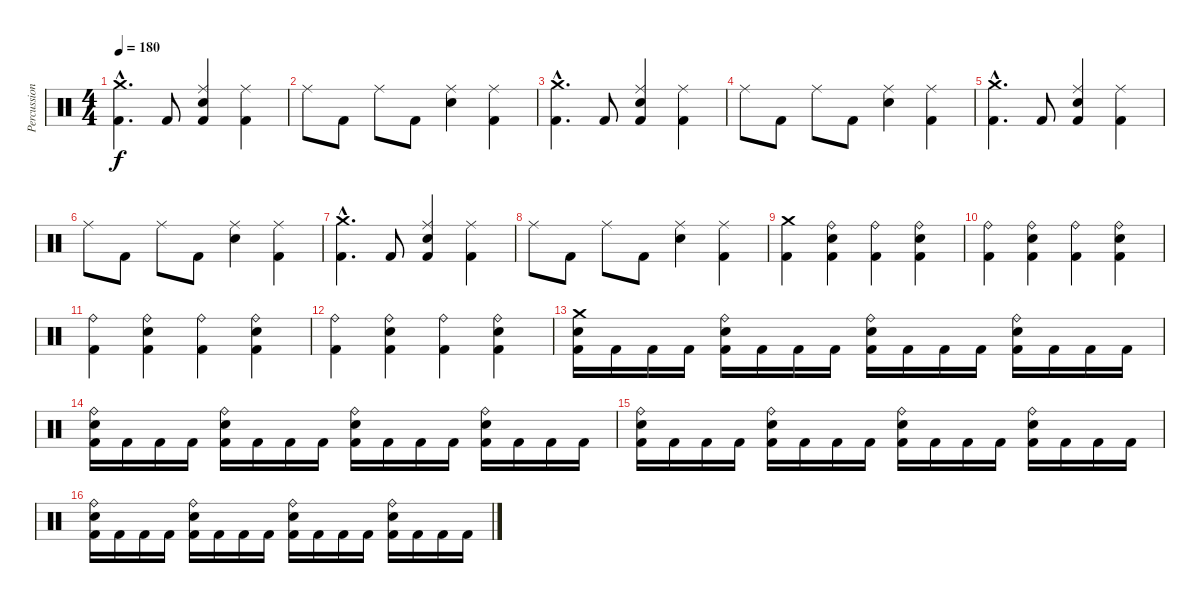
\track ("Percussion" "Percussion") {instrument percussion}
\staff {score}
\articulation defaults
\ts (4 4)
\tempo 180
\clef neutral
\ks c
("Crash medium (hit)"{hac} "Kick (hit) 2"{hac}).4{d dy f} "Kick (hit) 2".8 ("Ride (middle)" "Electric Snare (hit)" "Kick (hit) 2").4 ("Ride (middle)" "Kick (hit) 2").4 |
"Ride (middle)".8 "Kick (hit) 2".8 "Ride (middle)".8 "Kick (hit) 2".8 ("Ride (middle)" "Electric Snare (hit)").4 ("Ride (middle)" "Kick (hit) 2").4 |
("Crash medium (hit)"{hac} "Kick (hit) 2"{hac}).4{d} "Kick (hit) 2".8 ("Ride (middle)" "Electric Snare (hit)" "Kick (hit) 2").4 ("Ride (middle)" "Kick (hit) 2").4 |
"Ride (middle)".8 "Kick (hit) 2".8 "Ride (middle)".8 "Kick (hit) 2".8 ("Ride (middle)" "Electric Snare (hit)").4 ("Ride (middle)" "Kick (hit) 2").4 |
("Crash medium (hit)"{hac} "Kick (hit) 2"{hac}).4{d} "Kick (hit) 2".8 ("Ride (middle)" "Electric Snare (hit)" "Kick (hit) 2").4 ("Ride (middle)" "Kick (hit) 2").4 |
"Ride (middle)".8 "Kick (hit) 2".8 "Ride (middle)".8 "Kick (hit) 2".8 ("Ride (middle)" "Electric Snare (hit)").4 ("Ride (middle)" "Kick (hit) 2").4 |
("Crash medium (hit)"{hac} "Kick (hit) 2"{hac}).4{d} "Kick (hit) 2".8 ("Ride (middle)" "Electric Snare (hit)" "Kick (hit) 2").4 ("Ride (middle)" "Kick (hit) 2").4 |
"Ride (middle)".8 "Kick (hit) 2".8 "Ride (middle)".8 "Kick (hit) 2".8 ("Ride (middle)" "Electric Snare (hit)").4 ("Ride (middle)" "Kick (hit) 2").4 |
("Crash medium (hit)" "Kick (hit) 2").4 ("Ride (bell)" "Electric Snare (hit)" "Kick (hit) 2").4 ("Ride (bell)" "Kick (hit) 2").4 ("Ride (bell)" "Electric Snare (hit)" "Kick (hit) 2").4 |
("Ride (bell)" "Kick (hit) 2").4 ("Ride (bell)" "Electric Snare (hit)" "Kick (hit) 2").4 ("Ride (bell)" "Kick (hit) 2").4 ("Ride (bell)" "Electric Snare (hit)" "Kick (hit) 2").4 |
("Ride (bell)" "Kick (hit) 2").4 ("Ride (bell)" "Electric Snare (hit)" "Kick (hit) 2").4 ("Ride (bell)" "Kick (hit) 2").4 ("Ride (bell)" "Electric Snare (hit)" "Kick (hit) 2").4 |
("Ride (bell)" "Kick (hit) 2").4 ("Ride (bell)" "Electric Snare (hit)" "Kick (hit) 2").4 ("Ride (bell)" "Kick (hit) 2").4 ("Ride (bell)" "Electric Snare (hit)" "Kick (hit) 2").4 |
("Crash medium (hit)" "Electric Snare (hit)" "Kick (hit) 2").16 "Kick (hit) 2".16 "Kick (hit) 2".16 "Kick (hit) 2".16 ("Ride (bell)" "Electric Snare (hit)" "Kick (hit) 2").16 "Kick (hit) 2".16 "Kick (hit) 2".16 "Kick (hit) 2".16 ("Ride (bell)" "Electric Snare (hit)" "Kick (hit) 2").16 "Kick (hit) 2".16 "Kick (hit) 2".16 "Kick (hit) 2".16 ("Ride (bell)" "Electric Snare (hit)" "Kick (hit) 2").16 "Kick (hit) 2".16 "Kick (hit) 2".16 "Kick (hit) 2".16 |
("Ride (bell)" "Electric Snare (hit)" "Kick (hit) 2").16 "Kick (hit) 2".16 "Kick (hit) 2".16 "Kick (hit) 2".16 ("Ride (bell)" "Electric Snare (hit)" "Kick (hit) 2").16 "Kick (hit) 2".16 "Kick (hit) 2".16 "Kick (hit) 2".16 ("Ride (bell)" "Electric Snare (hit)" "Kick (hit) 2").16 "Kick (hit) 2".16 "Kick (hit) 2".16 "Kick (hit) 2".16 ("Ride (bell)" "Electric Snare (hit)" "Kick (hit) 2").16 "Kick (hit) 2".16 "Kick (hit) 2".16 "Kick (hit) 2".16 |
("Ride (bell)" "Electric Snare (hit)" "Kick (hit) 2").16 "Kick (hit) 2".16 "Kick (hit) 2".16 "Kick (hit) 2".16 ("Ride (bell)" "Electric Snare (hit)" "Kick (hit) 2").16 "Kick (hit) 2".16 "Kick (hit) 2".16 "Kick (hit) 2".16 ("Ride (bell)" "Electric Snare (hit)" "Kick (hit) 2").16 "Kick (hit) 2".16 "Kick (hit) 2".16 "Kick (hit) 2".16 ("Ride (bell)" "Electric Snare (hit)" "Kick (hit) 2").16 "Kick (hit) 2".16 "Kick (hit) 2".16 "Kick (hit) 2".16 |
("Ride (bell)" "Electric Snare (hit)" "Kick (hit) 2").16 "Kick (hit) 2".16 "Kick (hit) 2".16 "Kick (hit) 2".16 ("Ride (bell)" "Electric Snare (hit)" "Kick (hit) 2").16 "Kick (hit) 2".16 "Kick (hit) 2".16 "Kick (hit) 2".16 ("Ride (bell)" "Electric Snare (hit)" "Kick (hit) 2").16 "Kick (hit) 2".16 "Kick (hit) 2".16 "Kick (hit) 2".16 ("Ride (bell)" "Electric Snare (hit)" "Kick (hit) 2").16 "Kick (hit) 2".16 "Kick (hit) 2".16 "Kick (hit) 2".16
